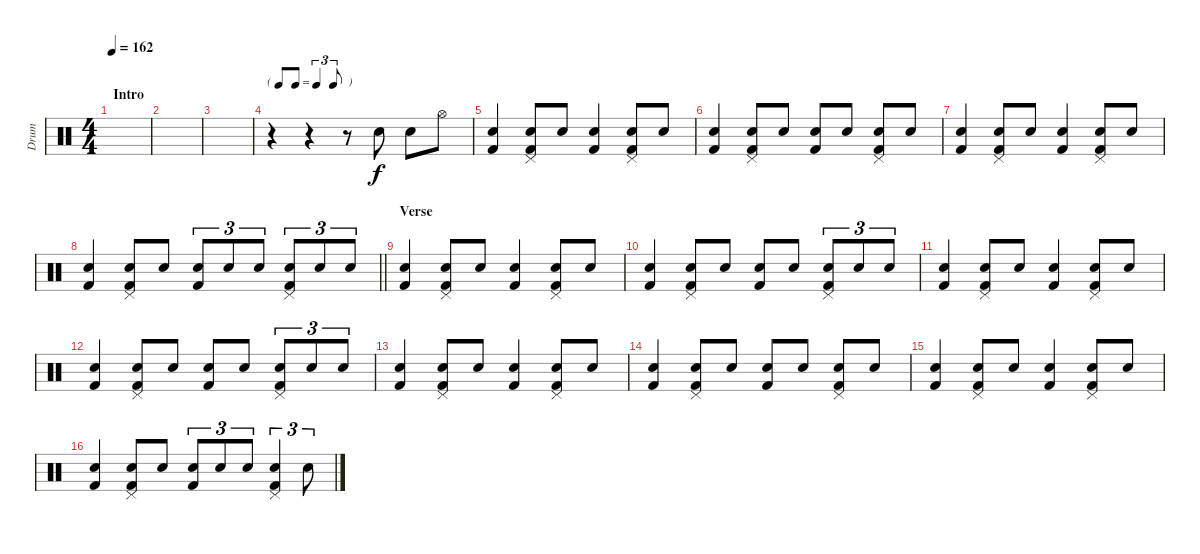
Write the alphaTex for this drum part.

\track ("Drum" "Drum") {instrument percussion}
\staff {score}
\articulation defaults
\ts (4 4)
\section ("" "Intro")
\tempo 162
\clef neutral
\ks c
|
|
|
\tf triplet8th
r.4 r.4 r.8 "Snare (hit) 2".8 "Snare (hit) 2".8 "Hi-Hat (open)".8 |
("Snare (hit) 2" "Kick (hit) 2").4 ("Pedal Hi-Hat (hit)" "Snare (hit) 2" "Kick (hit) 2").8 "Snare (hit) 2".8 ("Snare (hit) 2" "Kick (hit) 2").4 ("Pedal Hi-Hat (hit)" "Snare (hit) 2" "Kick (hit) 2").8 "Snare (hit) 2".8 |
("Snare (hit) 2" "Kick (hit) 2").4 ("Pedal Hi-Hat (hit)" "Snare (hit) 2" "Kick (hit) 2").8 "Snare (hit) 2".8 ("Snare (hit) 2" "Kick (hit) 2").8 "Snare (hit) 2".8 ("Pedal Hi-Hat (hit)" "Snare (hit) 2" "Kick (hit) 2").8 "Snare (hit) 2".8 |
("Snare (hit) 2" "Kick (hit) 2").4 ("Pedal Hi-Hat (hit)" "Snare (hit) 2" "Kick (hit) 2").8 "Snare (hit) 2".8 ("Snare (hit) 2" "Kick (hit) 2").4 ("Pedal Hi-Hat (hit)" "Snare (hit) 2" "Kick (hit) 2").8 "Snare (hit) 2".8 |
\barLineRight lightlight
("Snare (hit) 2" "Kick (hit) 2").4 ("Pedal Hi-Hat (hit)" "Snare (hit) 2" "Kick (hit) 2").8 "Snare (hit) 2".8 ("Snare (hit) 2" "Kick (hit) 2").8{tu (3 2)} "Snare (hit) 2".8{tu (3 2)} "Snare (hit) 2".8{tu (3 2)} ("Pedal Hi-Hat (hit)" "Snare (hit) 2" "Kick (hit) 2").8{tu (3 2)} "Snare (hit) 2".8{tu (3 2)} "Snare (hit) 2".8{tu (3 2)} |
\section ("" "Verse")
("Snare (hit) 2" "Kick (hit) 2").4 ("Pedal Hi-Hat (hit)" "Snare (hit) 2" "Kick (hit) 2").8 "Snare (hit) 2".8 ("Snare (hit) 2" "Kick (hit) 2").4 ("Pedal Hi-Hat (hit)" "Snare (hit) 2" "Kick (hit) 2").8 "Snare (hit) 2".8 |
("Snare (hit) 2" "Kick (hit) 2").4 ("Pedal Hi-Hat (hit)" "Snare (hit) 2" "Kick (hit) 2").8 "Snare (hit) 2".8 ("Snare (hit) 2" "Kick (hit) 2").8 "Snare (hit) 2".8 ("Pedal Hi-Hat (hit)" "Snare (hit) 2" "Kick (hit) 2").8{tu (3 2)} "Snare (hit) 2".8{tu (3 2)} "Snare (hit) 2".8{tu (3 2)} |
("Snare (hit) 2" "Kick (hit) 2").4 ("Pedal Hi-Hat (hit)" "Snare (hit) 2" "Kick (hit) 2").8 "Snare (hit) 2".8 ("Snare (hit) 2" "Kick (hit) 2").4 ("Pedal Hi-Hat (hit)" "Snare (hit) 2" "Kick (hit) 2").8 "Snare (hit) 2".8 |
("Snare (hit) 2" "Kick (hit) 2").4 ("Pedal Hi-Hat (hit)" "Snare (hit) 2" "Kick (hit) 2").8 "Snare (hit) 2".8 ("Snare (hit) 2" "Kick (hit) 2").8 "Snare (hit) 2".8 ("Pedal Hi-Hat (hit)" "Snare (hit) 2" "Kick (hit) 2").8{tu (3 2)} "Snare (hit) 2".8{tu (3 2)} "Snare (hit) 2".8{tu (3 2)} |
("Snare (hit) 2" "Kick (hit) 2").4 ("Pedal Hi-Hat (hit)" "Snare (hit) 2" "Kick (hit) 2").8 "Snare (hit) 2".8 ("Snare (hit) 2" "Kick (hit) 2").4 ("Pedal Hi-Hat (hit)" "Snare (hit) 2" "Kick (hit) 2").8 "Snare (hit) 2".8 |
("Snare (hit) 2" "Kick (hit) 2").4 ("Pedal Hi-Hat (hit)" "Snare (hit) 2" "Kick (hit) 2").8 "Snare (hit) 2".8 ("Snare (hit) 2" "Kick (hit) 2").8 "Snare (hit) 2".8 ("Pedal Hi-Hat (hit)" "Snare (hit) 2" "Kick (hit) 2").8 "Snare (hit) 2".8 |
("Snare (hit) 2" "Kick (hit) 2").4 ("Pedal Hi-Hat (hit)" "Snare (hit) 2" "Kick (hit) 2").8 "Snare (hit) 2".8 ("Snare (hit) 2" "Kick (hit) 2").4 ("Pedal Hi-Hat (hit)" "Snare (hit) 2" "Kick (hit) 2").8 "Snare (hit) 2".8 |
("Snare (hit) 2" "Kick (hit) 2").4 ("Pedal Hi-Hat (hit)" "Snare (hit) 2" "Kick (hit) 2").8 "Snare (hit) 2".8 ("Snare (hit) 2" "Kick (hit) 2").8{tu (3 2)} "Snare (hit) 2".8{tu (3 2)} "Snare (hit) 2".8{tu (3 2)} ("Pedal Hi-Hat (hit)" "Snare (hit) 2" "Kick (hit) 2").4{tu (3 2)} "Snare (hit) 2".8{tu (3 2)}
